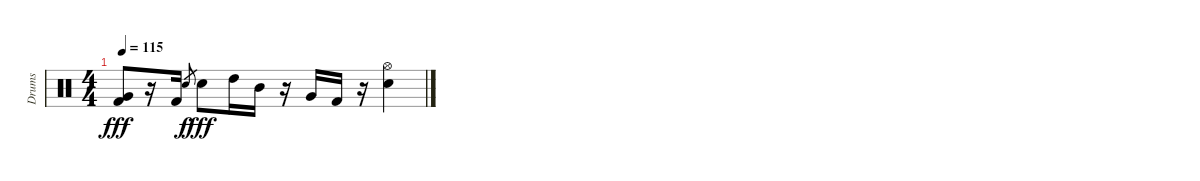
\track ("Drums" "Drums") {instrument percussion}
\staff {score}
\articulation defaults
\ts (4 4)
\tempo 115
\clef neutral
\ks c
("Very Low Tom (hit)" "Kick (hit) 2").8{dy fff} r.16 "Kick (hit) 2".16 "Electric Snare (hit)".8{gr dy f} "Electric Snare (hit)".8{dy fff} "High Tom (hit)".16 "Mid Tom (hit)".16 r.16 "Very Low Tom (hit)".16 "Kick (hit) 2".16 r.16 ("Hi-Hat (open)" "Electric Snare (hit)").4
